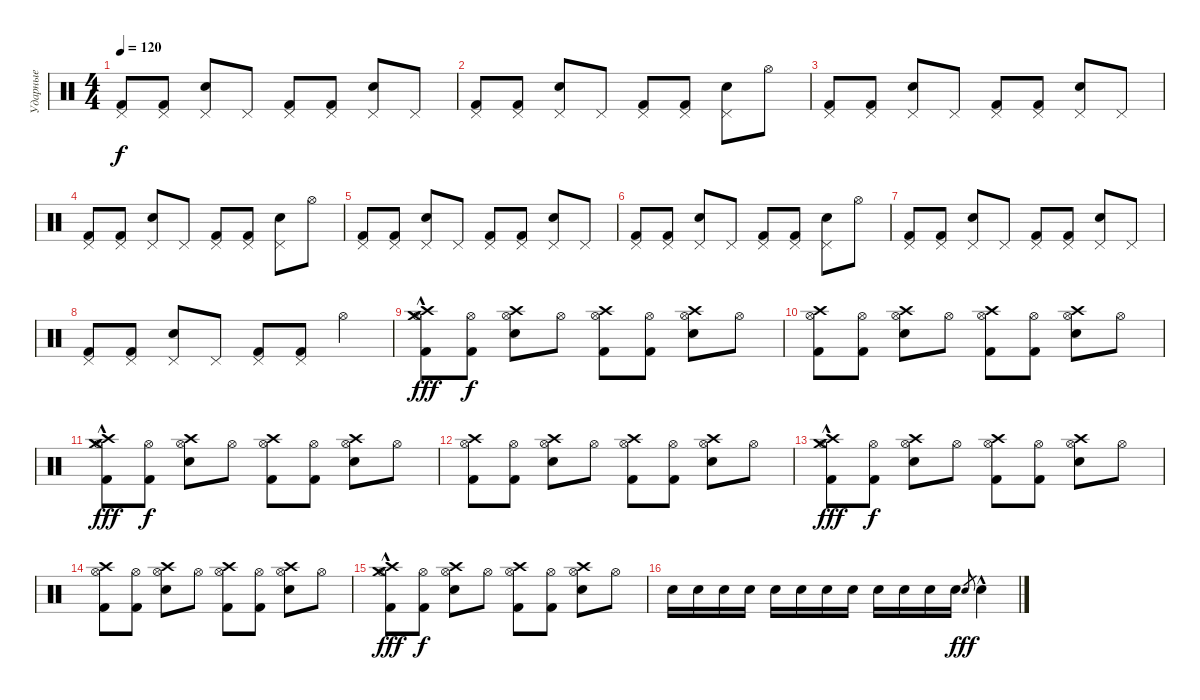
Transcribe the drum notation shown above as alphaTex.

\track ("Ударные" "Ударные") {instrument percussion}
\staff {score}
\articulation defaults
\ts (4 4)
\tempo 120
\clef neutral
\ks c
("Pedal Hi-Hat (hit)" "Kick (hit) 2").8{dy f} ("Pedal Hi-Hat (hit)" "Kick (hit) 2").8 ("Pedal Hi-Hat (hit)" "Electric Snare (hit)").8 "Pedal Hi-Hat (hit)".8 ("Pedal Hi-Hat (hit)" "Kick (hit) 2").8 ("Pedal Hi-Hat (hit)" "Kick (hit) 2").8 ("Pedal Hi-Hat (hit)" "Electric Snare (hit)").8 "Pedal Hi-Hat (hit)".8 |
("Pedal Hi-Hat (hit)" "Kick (hit) 2").8 ("Pedal Hi-Hat (hit)" "Kick (hit) 2").8 ("Pedal Hi-Hat (hit)" "Electric Snare (hit)").8 "Pedal Hi-Hat (hit)".8 ("Pedal Hi-Hat (hit)" "Kick (hit) 2").8 ("Pedal Hi-Hat (hit)" "Kick (hit) 2").8 ("Pedal Hi-Hat (hit)" "Electric Snare (hit)").8 "Hi-Hat (open)".8 |
("Pedal Hi-Hat (hit)" "Kick (hit) 2").8 ("Pedal Hi-Hat (hit)" "Kick (hit) 2").8 ("Pedal Hi-Hat (hit)" "Electric Snare (hit)").8 "Pedal Hi-Hat (hit)".8 ("Pedal Hi-Hat (hit)" "Kick (hit) 2").8 ("Pedal Hi-Hat (hit)" "Kick (hit) 2").8 ("Pedal Hi-Hat (hit)" "Electric Snare (hit)").8 "Pedal Hi-Hat (hit)".8 |
("Pedal Hi-Hat (hit)" "Kick (hit) 2").8 ("Pedal Hi-Hat (hit)" "Kick (hit) 2").8 ("Pedal Hi-Hat (hit)" "Electric Snare (hit)").8 "Pedal Hi-Hat (hit)".8 ("Pedal Hi-Hat (hit)" "Kick (hit) 2").8 ("Pedal Hi-Hat (hit)" "Kick (hit) 2").8 ("Pedal Hi-Hat (hit)" "Electric Snare (hit)").8 "Hi-Hat (open)".8 |
("Pedal Hi-Hat (hit)" "Kick (hit) 2").8 ("Pedal Hi-Hat (hit)" "Kick (hit) 2").8 ("Pedal Hi-Hat (hit)" "Electric Snare (hit)").8 "Pedal Hi-Hat (hit)".8 ("Pedal Hi-Hat (hit)" "Kick (hit) 2").8 ("Pedal Hi-Hat (hit)" "Kick (hit) 2").8 ("Pedal Hi-Hat (hit)" "Electric Snare (hit)").8 "Pedal Hi-Hat (hit)".8 |
("Pedal Hi-Hat (hit)" "Kick (hit) 2").8 ("Pedal Hi-Hat (hit)" "Kick (hit) 2").8 ("Pedal Hi-Hat (hit)" "Electric Snare (hit)").8 "Pedal Hi-Hat (hit)".8 ("Pedal Hi-Hat (hit)" "Kick (hit) 2").8 ("Pedal Hi-Hat (hit)" "Kick (hit) 2").8 ("Pedal Hi-Hat (hit)" "Electric Snare (hit)").8 "Hi-Hat (open)".8 |
("Pedal Hi-Hat (hit)" "Kick (hit) 2").8 ("Pedal Hi-Hat (hit)" "Kick (hit) 2").8 ("Pedal Hi-Hat (hit)" "Electric Snare (hit)").8 "Pedal Hi-Hat (hit)".8 ("Pedal Hi-Hat (hit)" "Kick (hit) 2").8 ("Pedal Hi-Hat (hit)" "Kick (hit) 2").8 ("Pedal Hi-Hat (hit)" "Electric Snare (hit)").8 "Pedal Hi-Hat (hit)".8 |
("Pedal Hi-Hat (hit)" "Kick (hit) 2").8 ("Pedal Hi-Hat (hit)" "Kick (hit) 2").8 ("Pedal Hi-Hat (hit)" "Electric Snare (hit)").8 "Pedal Hi-Hat (hit)".8 ("Pedal Hi-Hat (hit)" "Kick (hit) 2").8 ("Pedal Hi-Hat (hit)" "Kick (hit) 2").8 "Hi-Hat (open)".4 |
("Crash high (hit)"{hac} "Hi-Hat (open)"{hac} "Crash medium (hit)"{hac} "Kick (hit) 2").8{dy fff} ("Hi-Hat (open)" "Kick (hit) 2").8{dy f} ("Crash high (hit)" "Hi-Hat (open)" "Electric Snare (hit)").8 "Hi-Hat (open)".8 ("Crash high (hit)" "Hi-Hat (open)" "Kick (hit) 2").8 ("Hi-Hat (open)" "Kick (hit) 2").8 ("Crash high (hit)" "Hi-Hat (open)" "Electric Snare (hit)").8 "Hi-Hat (open)".8 |
("Crash high (hit)" "Hi-Hat (open)" "Kick (hit) 2").8 ("Hi-Hat (open)" "Kick (hit) 2").8 ("Crash high (hit)" "Hi-Hat (open)" "Electric Snare (hit)").8 "Hi-Hat (open)".8 ("Crash high (hit)" "Hi-Hat (open)" "Kick (hit) 2").8 ("Hi-Hat (open)" "Kick (hit) 2").8 ("Crash high (hit)" "Hi-Hat (open)" "Electric Snare (hit)").8 "Hi-Hat (open)".8 |
("Crash high (hit)"{hac} "Hi-Hat (open)"{hac} "Crash medium (hit)"{hac} "Kick (hit) 2").8{dy fff} ("Hi-Hat (open)" "Kick (hit) 2").8{dy f} ("Crash high (hit)" "Hi-Hat (open)" "Electric Snare (hit)").8 "Hi-Hat (open)".8 ("Crash high (hit)" "Hi-Hat (open)" "Kick (hit) 2").8 ("Hi-Hat (open)" "Kick (hit) 2").8 ("Crash high (hit)" "Hi-Hat (open)" "Electric Snare (hit)").8 "Hi-Hat (open)".8 |
("Crash high (hit)" "Hi-Hat (open)" "Kick (hit) 2").8 ("Hi-Hat (open)" "Kick (hit) 2").8 ("Crash high (hit)" "Hi-Hat (open)" "Electric Snare (hit)").8 "Hi-Hat (open)".8 ("Crash high (hit)" "Hi-Hat (open)" "Kick (hit) 2").8 ("Hi-Hat (open)" "Kick (hit) 2").8 ("Crash high (hit)" "Hi-Hat (open)" "Electric Snare (hit)").8 "Hi-Hat (open)".8 |
("Crash high (hit)"{hac} "Hi-Hat (open)"{hac} "Crash medium (hit)"{hac} "Kick (hit) 2").8{dy fff} ("Hi-Hat (open)" "Kick (hit) 2").8{dy f} ("Crash high (hit)" "Hi-Hat (open)" "Electric Snare (hit)").8 "Hi-Hat (open)".8 ("Crash high (hit)" "Hi-Hat (open)" "Kick (hit) 2").8 ("Hi-Hat (open)" "Kick (hit) 2").8 ("Crash high (hit)" "Hi-Hat (open)" "Electric Snare (hit)").8 "Hi-Hat (open)".8 |
("Crash high (hit)" "Hi-Hat (open)" "Kick (hit) 2").8 ("Hi-Hat (open)" "Kick (hit) 2").8 ("Crash high (hit)" "Hi-Hat (open)" "Electric Snare (hit)").8 "Hi-Hat (open)".8 ("Crash high (hit)" "Hi-Hat (open)" "Kick (hit) 2").8 ("Hi-Hat (open)" "Kick (hit) 2").8 ("Crash high (hit)" "Hi-Hat (open)" "Electric Snare (hit)").8 "Hi-Hat (open)".8 |
("Crash high (hit)"{hac} "Hi-Hat (open)"{hac} "Crash medium (hit)"{hac} "Kick (hit) 2").8{dy fff} ("Hi-Hat (open)" "Kick (hit) 2").8{dy f} ("Crash high (hit)" "Hi-Hat (open)" "Electric Snare (hit)").8 "Hi-Hat (open)".8 ("Crash high (hit)" "Hi-Hat (open)" "Kick (hit) 2").8 ("Hi-Hat (open)" "Kick (hit) 2").8 ("Crash high (hit)" "Hi-Hat (open)" "Electric Snare (hit)").8 "Hi-Hat (open)".8 |
"Electric Snare (hit)".16 "Electric Snare (hit)".16 "Electric Snare (hit)".16 "Electric Snare (hit)".16 "Electric Snare (hit)".16 "Electric Snare (hit)".16 "Electric Snare (hit)".16 "Electric Snare (hit)".16 "Electric Snare (hit)".16 "Electric Snare (hit)".16 "Electric Snare (hit)".16 "Electric Snare (hit)".16 "Electric Snare (hit)".8{gr dy fff} "Electric Snare (hit)"{hac}.4
